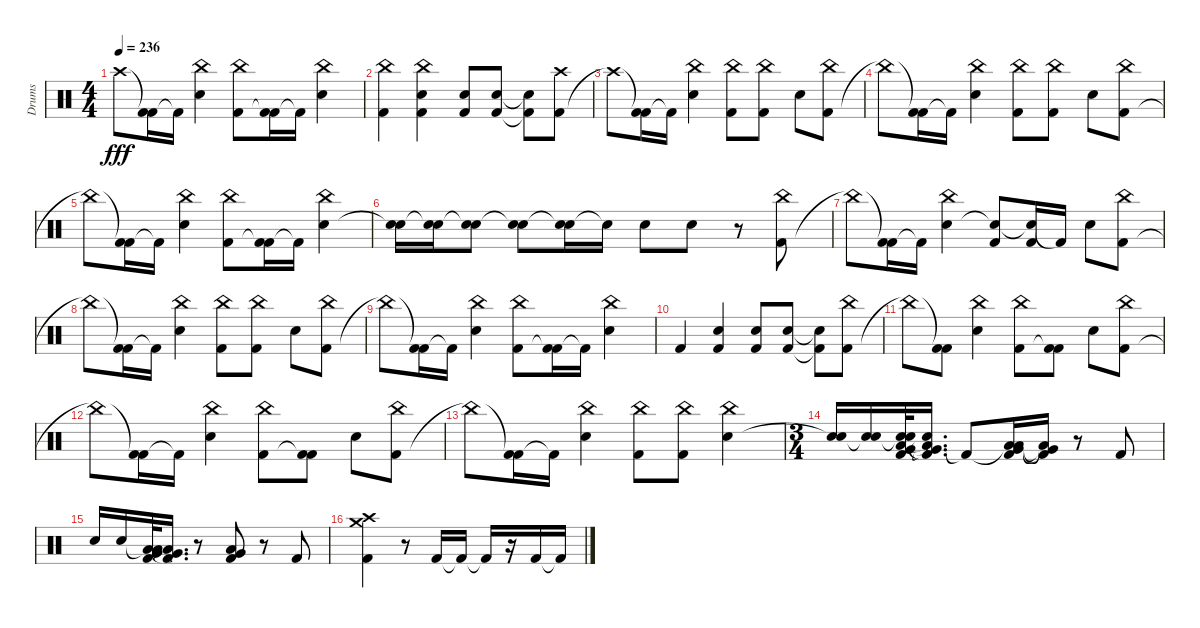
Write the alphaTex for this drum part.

\track ("Drums" "Drums") {instrument percussion}
\staff {score}
\articulation defaults
\ts (4 4)
\tempo 236
\clef neutral
\ks c "Crash high (hit)"{t}.8{dy fff}
("Kick (hit) 2"{t} "Kick (hit) 2").16 "Kick (hit) 2"{t}.16 ("Snare (hit) 2" "China (hit)").4 ("Kick (hit) 2" "China (hit)").8 ("Kick (hit) 2"{t} "Kick (hit) 2").16 "Kick (hit) 2"{t}.16 ("Snare (hit) 2" "China (hit)").4 |
("Kick (hit) 2" "China (hit)").4 ("Snare (hit) 2" "Kick (hit) 2" "China (hit)").4 ("Kick (hit) 2" "Snare (hit) 2").8 ("Kick (hit) 2" "Snare (hit) 2").8 ("Kick (hit) 2"{t} "Snare (hit) 2"{t}).8 ("Kick (hit) 2" "Crash high (hit)").8 |
"Crash high (hit)"{t}.8 ("Kick (hit) 2"{t} "Kick (hit) 2").16 "Kick (hit) 2"{t}.16 ("China (hit)" "Snare (hit) 2").4 ("Kick (hit) 2" "China (hit)").8 ("Kick (hit) 2" "China (hit)").8 "Snare (hit) 2".8 ("Kick (hit) 2" "China (hit)").8 |
"China (hit)"{t}.8 ("Kick (hit) 2"{t} "Kick (hit) 2").16 "Kick (hit) 2"{t}.16 ("Snare (hit) 2" "China (hit)").4 ("Kick (hit) 2" "China (hit)").8 ("Kick (hit) 2" "China (hit)").8 "Snare (hit) 2".8 ("Kick (hit) 2" "China (hit)").8 |
"China (hit)"{t}.8 ("Kick (hit) 2"{t} "Kick (hit) 2").16 "Kick (hit) 2"{t}.16 ("Snare (hit) 2" "China (hit)").4 ("Kick (hit) 2" "China (hit)").8 ("Kick (hit) 2"{t} "Kick (hit) 2").16 "Kick (hit) 2"{t}.16 ("Snare (hit) 2" "China (hit)").4 |
("Snare (hit) 2"{t} "Snare (hit) 2").16 ("Snare (hit) 2"{t} "Snare (hit) 2").16 ("Snare (hit) 2" "Snare (hit) 2"{t}).8 ("Snare (hit) 2"{t} "Snare (hit) 2").8 ("Snare (hit) 2"{t} "Snare (hit) 2").16 "Snare (hit) 2"{t}.16 "Snare (hit) 2".8 "Snare (hit) 2".8 r.8 ("Kick (hit) 2" "China (hit)").8 |
"China (hit)"{t}.8 ("Kick (hit) 2"{t} "Kick (hit) 2").16 "Kick (hit) 2"{t}.16 ("Snare (hit) 2" "China (hit)").4 ("Snare (hit) 2"{t} "Kick (hit) 2").8 ("Snare (hit) 2"{t} "Kick (hit) 2").16 "Kick (hit) 2"{t}.16 "Snare (hit) 2".8 ("Kick (hit) 2" "China (hit)").8 |
"China (hit)"{t}.8 ("Kick (hit) 2"{t} "Kick (hit) 2").16 "Kick (hit) 2"{t}.16 ("Snare (hit) 2" "China (hit)").4 ("Kick (hit) 2" "China (hit)").8 ("Kick (hit) 2" "China (hit)").8 "Snare (hit) 2".8 ("Kick (hit) 2" "China (hit)").8 |
"China (hit)"{t}.8 ("Kick (hit) 2"{t} "Kick (hit) 2").16 "Kick (hit) 2"{t}.16 ("Snare (hit) 2" "China (hit)").4 ("Kick (hit) 2" "China (hit)").8 ("Kick (hit) 2"{t} "Kick (hit) 2").16 "Kick (hit) 2"{t}.16 ("Snare (hit) 2" "China (hit)").4 |
"Kick (hit) 2".4 ("Kick (hit) 2" "Snare (hit) 2").4 ("Kick (hit) 2" "Snare (hit) 2").8 ("Kick (hit) 2" "Snare (hit) 2").8 ("Kick (hit) 2"{t} "Snare (hit) 2"{t}).8 ("Kick (hit) 2" "China (hit)").8 |
"China (hit)"{t}.8 ("Kick (hit) 2"{t} "Kick (hit) 2").8 ("Snare (hit) 2" "China (hit)").4 ("Kick (hit) 2" "China (hit)").8 ("Kick (hit) 2"{t} "Kick (hit) 2").8 "Snare (hit) 2".8 ("Kick (hit) 2" "China (hit)").8 |
"China (hit)"{t}.8 ("Kick (hit) 2"{t} "Kick (hit) 2").16 "Kick (hit) 2"{t}.16 ("Snare (hit) 2" "China (hit)").4 ("Kick (hit) 2" "China (hit)").8 ("Kick (hit) 2"{t} "Kick (hit) 2").8 "Snare (hit) 2".8 ("Kick (hit) 2" "China (hit)").8 |
"China (hit)"{t}.8 ("Kick (hit) 2"{t} "Kick (hit) 2").16 "Kick (hit) 2"{t}.16 ("Snare (hit) 2" "China (hit)").4 ("Kick (hit) 2" "China (hit)").8 ("Kick (hit) 2" "China (hit)").8 ("Snare (hit) 2" "China (hit)").4 |
\ts (3 4)
("Snare (hit) 2"{t} "Snare (hit) 2").16 ("Snare (hit) 2"{t} "Hand Clap (hit)").16 ("Snare (hit)"{t} "Low Floor Tom (hit)" "Very Low Tom (hit)" "Snare (hit) 2" "Kick (hit) 2").32 ("Low Floor Tom (hit)"{t} "Very Low Tom (hit)"{t} "Snare (hit) 2"{t} "Kick (hit) 2"{t}).16{d} "Kick (hit) 2"{t}.8 ("Low Floor Tom (hit)"{t} "Kick (hit) 2" "Low Floor Tom (hit)" "Very Low Tom (hit)").16 ("Kick (hit) 2"{t} "Low Floor Tom (hit)"{t} "Very Low Tom (hit)"{t}).16 r.8 "Kick (hit) 2".8 |
"Snare (hit) 2".16 "Hand Clap (hit)".16 ("Low Floor Tom (hit)"{t} "Kick (hit) 2" "Very Low Tom (hit)" "Low Floor Tom (hit)").32 ("Kick (hit) 2"{t} "Very Low Tom (hit)"{t} "Low Floor Tom (hit)"{t}).16{d} r.8 ("Kick (hit) 2" "Low Floor Tom (hit)" "Very Low Tom (hit)").8 r.8 "Kick (hit) 2".8 |
("Kick (hit) 2" "Crash high (hit)" "Crash medium (hit)").4 r.8 "Kick (hit) 2".16 "Kick (hit) 2"{t}.16 "Kick (hit) 2"{t}.16 r.16 "Kick (hit) 2".16 "Kick (hit) 2"{t}.16
